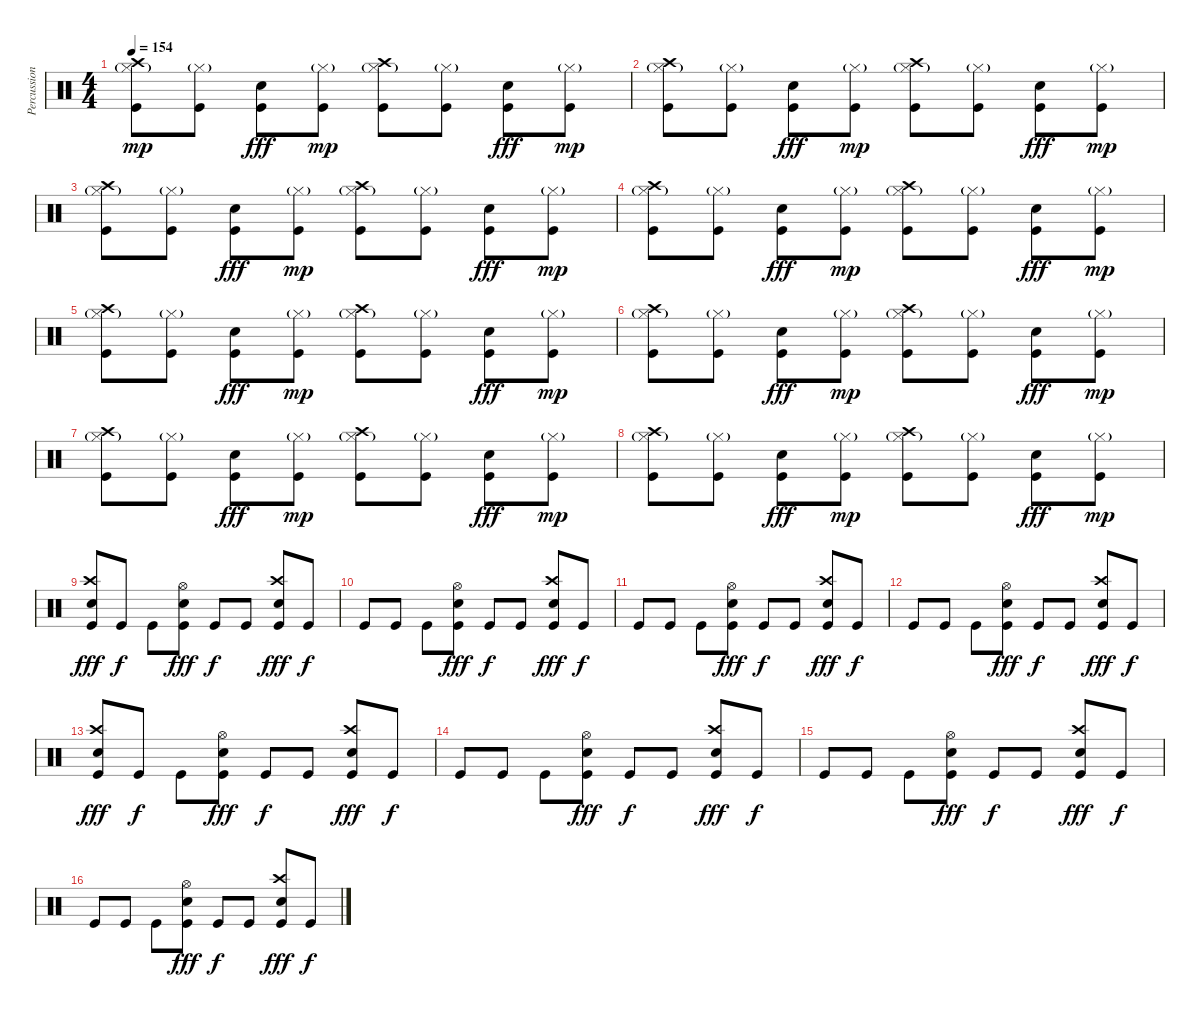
\track ("Percussion" "Percussion") {instrument percussion}
\staff {score}
\articulation defaults
\ts (4 4)
\tempo 154
\clef neutral
\ks c
("Kick (hit)" "Hi-Hat (closed)"{g} "Crash high (hit)").8{dy mp} ("Kick (hit)" "Hi-Hat (closed)"{g}).8 ("Kick (hit)" "Electric Snare (hit)").8{dy fff} ("Kick (hit)" "Hi-Hat (closed)"{g}).8{dy mp} ("Kick (hit)" "Hi-Hat (closed)"{g} "Crash high (hit)").8 ("Kick (hit)" "Hi-Hat (closed)"{g}).8 ("Kick (hit)" "Electric Snare (hit)").8{dy fff} ("Kick (hit)" "Hi-Hat (closed)"{g}).8{dy mp} |
("Kick (hit)" "Hi-Hat (closed)"{g} "Crash high (hit)").8 ("Kick (hit)" "Hi-Hat (closed)"{g}).8 ("Kick (hit)" "Electric Snare (hit)").8{dy fff} ("Kick (hit)" "Hi-Hat (closed)"{g}).8{dy mp} ("Kick (hit)" "Hi-Hat (closed)"{g} "Crash high (hit)").8 ("Kick (hit)" "Hi-Hat (closed)"{g}).8 ("Kick (hit)" "Electric Snare (hit)").8{dy fff} ("Kick (hit)" "Hi-Hat (closed)"{g}).8{dy mp} |
("Kick (hit)" "Hi-Hat (closed)"{g} "Crash high (hit)").8 ("Kick (hit)" "Hi-Hat (closed)"{g}).8 ("Kick (hit)" "Electric Snare (hit)").8{dy fff} ("Kick (hit)" "Hi-Hat (closed)"{g}).8{dy mp} ("Kick (hit)" "Hi-Hat (closed)"{g} "Crash high (hit)").8 ("Kick (hit)" "Hi-Hat (closed)"{g}).8 ("Kick (hit)" "Electric Snare (hit)").8{dy fff} ("Kick (hit)" "Hi-Hat (closed)"{g}).8{dy mp} |
("Kick (hit)" "Hi-Hat (closed)"{g} "Crash high (hit)").8 ("Kick (hit)" "Hi-Hat (closed)"{g}).8 ("Kick (hit)" "Electric Snare (hit)").8{dy fff} ("Kick (hit)" "Hi-Hat (closed)"{g}).8{dy mp} ("Kick (hit)" "Hi-Hat (closed)"{g} "Crash high (hit)").8 ("Kick (hit)" "Hi-Hat (closed)"{g}).8 ("Kick (hit)" "Electric Snare (hit)").8{dy fff} ("Kick (hit)" "Hi-Hat (closed)"{g}).8{dy mp} |
("Kick (hit)" "Hi-Hat (closed)"{g} "Crash high (hit)").8 ("Kick (hit)" "Hi-Hat (closed)"{g}).8 ("Kick (hit)" "Electric Snare (hit)").8{dy fff} ("Kick (hit)" "Hi-Hat (closed)"{g}).8{dy mp} ("Kick (hit)" "Hi-Hat (closed)"{g} "Crash high (hit)").8 ("Kick (hit)" "Hi-Hat (closed)"{g}).8 ("Kick (hit)" "Electric Snare (hit)").8{dy fff} ("Kick (hit)" "Hi-Hat (closed)"{g}).8{dy mp} |
("Kick (hit)" "Hi-Hat (closed)"{g} "Crash high (hit)").8 ("Kick (hit)" "Hi-Hat (closed)"{g}).8 ("Kick (hit)" "Electric Snare (hit)").8{dy fff} ("Kick (hit)" "Hi-Hat (closed)"{g}).8{dy mp} ("Kick (hit)" "Hi-Hat (closed)"{g} "Crash high (hit)").8 ("Kick (hit)" "Hi-Hat (closed)"{g}).8 ("Kick (hit)" "Electric Snare (hit)").8{dy fff} ("Kick (hit)" "Hi-Hat (closed)"{g}).8{dy mp} |
("Kick (hit)" "Hi-Hat (closed)"{g} "Crash high (hit)").8 ("Kick (hit)" "Hi-Hat (closed)"{g}).8 ("Kick (hit)" "Electric Snare (hit)").8{dy fff} ("Kick (hit)" "Hi-Hat (closed)"{g}).8{dy mp} ("Kick (hit)" "Hi-Hat (closed)"{g} "Crash high (hit)").8 ("Kick (hit)" "Hi-Hat (closed)"{g}).8 ("Kick (hit)" "Electric Snare (hit)").8{dy fff} ("Kick (hit)" "Hi-Hat (closed)"{g}).8{dy mp} |
("Kick (hit)" "Hi-Hat (closed)"{g} "Crash high (hit)").8 ("Kick (hit)" "Hi-Hat (closed)"{g}).8 ("Kick (hit)" "Electric Snare (hit)").8{dy fff} ("Kick (hit)" "Hi-Hat (closed)"{g}).8{dy mp} ("Kick (hit)" "Hi-Hat (closed)"{g} "Crash high (hit)").8 ("Kick (hit)" "Hi-Hat (closed)"{g}).8 ("Kick (hit)" "Electric Snare (hit)").8{dy fff} ("Kick (hit)" "Hi-Hat (closed)"{g}).8{dy mp} |
("Kick (hit)" "Crash high (hit)" "Electric Snare (hit)").8{dy fff} "Kick (hit)".8{dy f} "Kick (hit)".8 ("Kick (hit)" "Electric Snare (hit)" "Hi-Hat (open)").8{dy fff} "Kick (hit)".8{dy f} "Kick (hit)".8 ("Electric Snare (hit)" "Kick (hit)" "Crash high (hit)").8{dy fff} "Kick (hit)".8{dy f} |
"Kick (hit)".8 "Kick (hit)".8 "Kick (hit)".8 ("Kick (hit)" "Electric Snare (hit)" "Hi-Hat (open)").8{dy fff} "Kick (hit)".8{dy f} "Kick (hit)".8 ("Kick (hit)" "Electric Snare (hit)" "Crash high (hit)").8{dy fff} "Kick (hit)".8{dy f} |
"Kick (hit)".8 "Kick (hit)".8 "Kick (hit)".8 ("Kick (hit)" "Electric Snare (hit)" "Hi-Hat (open)").8{dy fff} "Kick (hit)".8{dy f} "Kick (hit)".8 ("Kick (hit)" "Electric Snare (hit)" "Crash high (hit)").8{dy fff} "Kick (hit)".8{dy f} |
"Kick (hit)".8 "Kick (hit)".8 "Kick (hit)".8 ("Kick (hit)" "Electric Snare (hit)" "Hi-Hat (open)").8{dy fff} "Kick (hit)".8{dy f} "Kick (hit)".8 ("Kick (hit)" "Electric Snare (hit)" "Crash high (hit)").8{dy fff} "Kick (hit)".8{dy f} |
("Kick (hit)" "Crash high (hit)" "Electric Snare (hit)").8{dy fff} "Kick (hit)".8{dy f} "Kick (hit)".8 ("Kick (hit)" "Electric Snare (hit)" "Hi-Hat (open)").8{dy fff} "Kick (hit)".8{dy f} "Kick (hit)".8 ("Electric Snare (hit)" "Kick (hit)" "Crash high (hit)").8{dy fff} "Kick (hit)".8{dy f} |
"Kick (hit)".8 "Kick (hit)".8 "Kick (hit)".8 ("Kick (hit)" "Electric Snare (hit)" "Hi-Hat (open)").8{dy fff} "Kick (hit)".8{dy f} "Kick (hit)".8 ("Kick (hit)" "Electric Snare (hit)" "Crash high (hit)").8{dy fff} "Kick (hit)".8{dy f} |
"Kick (hit)".8 "Kick (hit)".8 "Kick (hit)".8 ("Kick (hit)" "Electric Snare (hit)" "Hi-Hat (open)").8{dy fff} "Kick (hit)".8{dy f} "Kick (hit)".8 ("Kick (hit)" "Electric Snare (hit)" "Crash high (hit)").8{dy fff} "Kick (hit)".8{dy f} |
"Kick (hit)".8 "Kick (hit)".8 "Kick (hit)".8 ("Kick (hit)" "Electric Snare (hit)" "Hi-Hat (open)").8{dy fff} "Kick (hit)".8{dy f} "Kick (hit)".8 ("Kick (hit)" "Electric Snare (hit)" "Crash high (hit)").8{dy fff} "Kick (hit)".8{dy f}
